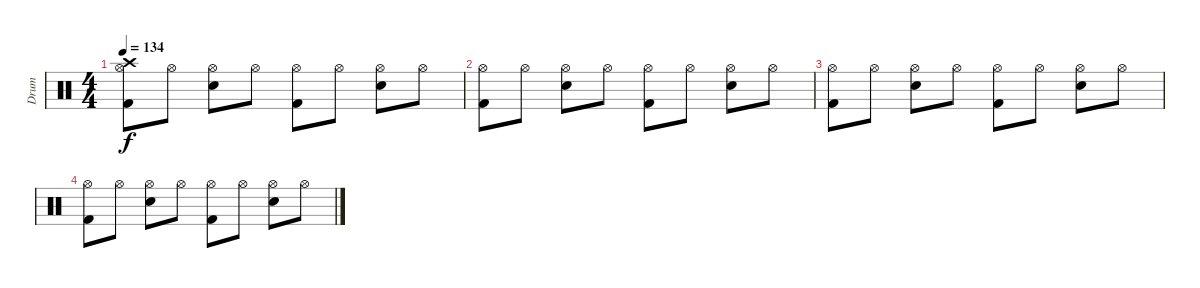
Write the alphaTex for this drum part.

\track ("Drum" "Drum") {instrument percussion}
\staff {score}
\articulation defaults
\ts (4 4)
\tempo 134
\clef neutral
\ks c
("Hi-Hat (open)" "Crash high (hit)" "Kick (hit) 2").8{dy f volume 0} "Hi-Hat (open)".8 ("Hi-Hat (open)" "Snare (hit) 2").8 "Hi-Hat (open)".8 ("Hi-Hat (open)" "Kick (hit) 2").8 "Hi-Hat (open)".8 ("Hi-Hat (open)" "Snare (hit) 2").8 "Hi-Hat (open)".8 |
("Hi-Hat (open)" "Kick (hit) 2").8 "Hi-Hat (open)".8 ("Hi-Hat (open)" "Snare (hit) 2").8 "Hi-Hat (open)".8 ("Hi-Hat (open)" "Kick (hit) 2").8 "Hi-Hat (open)".8 ("Hi-Hat (open)" "Snare (hit) 2").8 "Hi-Hat (open)".8 |
("Hi-Hat (open)" "Kick (hit) 2").8 "Hi-Hat (open)".8 ("Hi-Hat (open)" "Snare (hit) 2").8 "Hi-Hat (open)".8 ("Hi-Hat (open)" "Kick (hit) 2").8 "Hi-Hat (open)".8 ("Hi-Hat (open)" "Snare (hit) 2").8 "Hi-Hat (open)".8 |
("Hi-Hat (open)" "Kick (hit) 2").8 "Hi-Hat (open)".8 ("Hi-Hat (open)" "Snare (hit) 2").8 "Hi-Hat (open)".8 ("Hi-Hat (open)" "Kick (hit) 2").8 "Hi-Hat (open)".8 ("Hi-Hat (open)" "Snare (hit) 2").8 "Hi-Hat (open)".8
